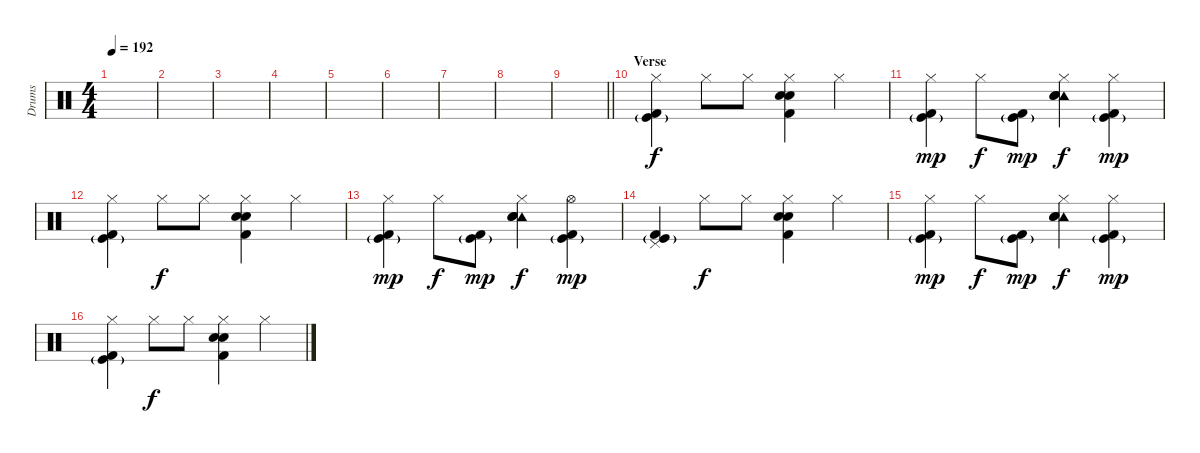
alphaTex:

\track ("Drums" "Drums") {instrument percussion}
\staff {score}
\articulation defaults
\ts (4 4)
\tempo 192
\clef neutral
\ks c
|
|
|
|
|
|
|
|
\barLineRight lightlight
|
\section ("" "Verse ")
("Hi-Hat (closed)" "Kick (hit)"{g} "Kick (hit) 2").4 "Hi-Hat (closed)".8{dy f} "Hi-Hat (closed)".8 ("Hi-Hat (closed)" "Electric Snare (hit)" "Hand Clap (hit)" "Kick (hit) 2").4 "Hi-Hat (closed)".4 |
("Hi-Hat (closed)" "Kick (hit)"{g} "Kick (hit) 2").4{dy mp} "Hi-Hat (closed)".8{dy f} ("Kick (hit)"{g} "Kick (hit) 2").8{dy mp} ("Hi-Hat (closed)" "Tambourine (hit)" "Electric Snare (hit)" "Hand Clap (hit)").4{dy f} ("Hi-Hat (closed)" "Kick (hit)"{g} "Kick (hit) 2").4{dy mp} |
("Hi-Hat (closed)" "Kick (hit)"{g} "Kick (hit) 2").4 "Hi-Hat (closed)".8{dy f} "Hi-Hat (closed)".8 ("Hi-Hat (closed)" "Electric Snare (hit)" "Hand Clap (hit)" "Kick (hit) 2").4 "Hi-Hat (closed)".4 |
("Hi-Hat (closed)" "Kick (hit)"{g} "Kick (hit) 2").4{dy mp} "Hi-Hat (closed)".8{dy f} ("Kick (hit)"{g} "Kick (hit) 2").8{dy mp} ("Hi-Hat (closed)" "Tambourine (hit)" "Electric Snare (hit)" "Hand Clap (hit)").4{dy f} ("Hi-Hat (open)" "Kick (hit)"{g} "Kick (hit) 2").4{dy mp} |
("Pedal Hi-Hat (hit)" "Kick (hit)"{g} "Kick (hit) 2").4 "Hi-Hat (closed)".8{dy f} "Hi-Hat (closed)".8 ("Hi-Hat (closed)" "Electric Snare (hit)" "Hand Clap (hit)" "Kick (hit) 2").4 "Hi-Hat (closed)".4 |
("Hi-Hat (closed)" "Kick (hit)"{g} "Kick (hit) 2").4{dy mp} "Hi-Hat (closed)".8{dy f} ("Kick (hit)"{g} "Kick (hit) 2").8{dy mp} ("Hi-Hat (closed)" "Tambourine (hit)" "Electric Snare (hit)" "Hand Clap (hit)").4{dy f} ("Hi-Hat (closed)" "Kick (hit)"{g} "Kick (hit) 2").4{dy mp} |
("Hi-Hat (closed)" "Kick (hit)"{g} "Kick (hit) 2").4 "Hi-Hat (closed)".8{dy f} "Hi-Hat (closed)".8 ("Hi-Hat (closed)" "Electric Snare (hit)" "Hand Clap (hit)" "Kick (hit) 2").4 "Hi-Hat (closed)".4
